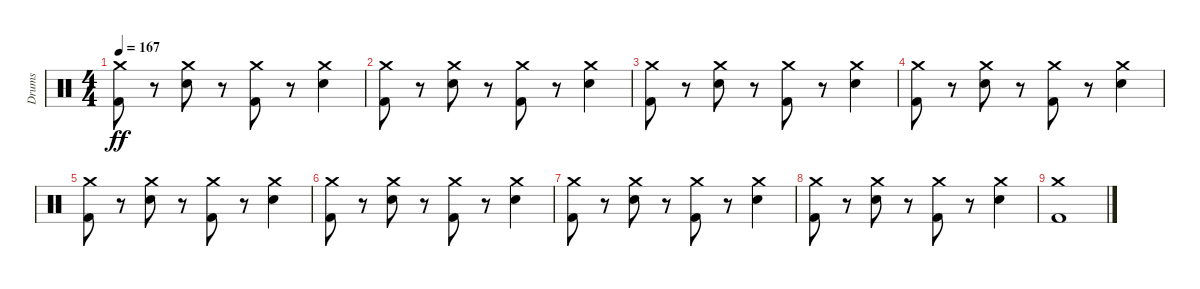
\track ("Drums" "Drums") {instrument percussion}
\staff {score}
\articulation defaults
\ts (4 4)
\tempo 167
\clef neutral
\ks c
("Crash medium (hit)" "Kick (hit) 2").8{dy ff} r.8 ("Crash medium (hit)" "Snare (hit) 2").8 r.8 ("Crash medium (hit)" "Kick (hit) 2").8 r.8 ("Crash medium (hit)" "Snare (hit) 2").4 |
("Crash medium (hit)" "Kick (hit) 2").8 r.8 ("Crash medium (hit)" "Snare (hit) 2").8 r.8 ("Crash medium (hit)" "Kick (hit) 2").8 r.8 ("Crash medium (hit)" "Snare (hit) 2").4 |
("Crash medium (hit)" "Kick (hit) 2").8 r.8 ("Crash medium (hit)" "Snare (hit) 2").8 r.8 ("Crash medium (hit)" "Kick (hit) 2").8 r.8 ("Crash medium (hit)" "Snare (hit) 2").4 |
("Crash medium (hit)" "Kick (hit) 2").8 r.8 ("Crash medium (hit)" "Snare (hit) 2").8 r.8 ("Crash medium (hit)" "Kick (hit) 2").8 r.8 ("Crash medium (hit)" "Snare (hit) 2").4 |
("Crash medium (hit)" "Kick (hit) 2").8 r.8 ("Crash medium (hit)" "Snare (hit) 2").8 r.8 ("Crash medium (hit)" "Kick (hit) 2").8 r.8 ("Crash medium (hit)" "Snare (hit) 2").4 |
("Crash medium (hit)" "Kick (hit) 2").8 r.8 ("Crash medium (hit)" "Snare (hit) 2").8 r.8 ("Crash medium (hit)" "Kick (hit) 2").8 r.8 ("Crash medium (hit)" "Snare (hit) 2").4 |
("Crash medium (hit)" "Kick (hit) 2").8 r.8 ("Crash medium (hit)" "Snare (hit) 2").8 r.8 ("Crash medium (hit)" "Kick (hit) 2").8 r.8 ("Crash medium (hit)" "Snare (hit) 2").4 |
("Crash medium (hit)" "Kick (hit) 2").8 r.8 ("Crash medium (hit)" "Snare (hit) 2").8 r.8 ("Crash medium (hit)" "Kick (hit) 2").8 r.8 ("Crash medium (hit)" "Snare (hit) 2").4 |
("Crash medium (hit)" "Kick (hit) 2").1
